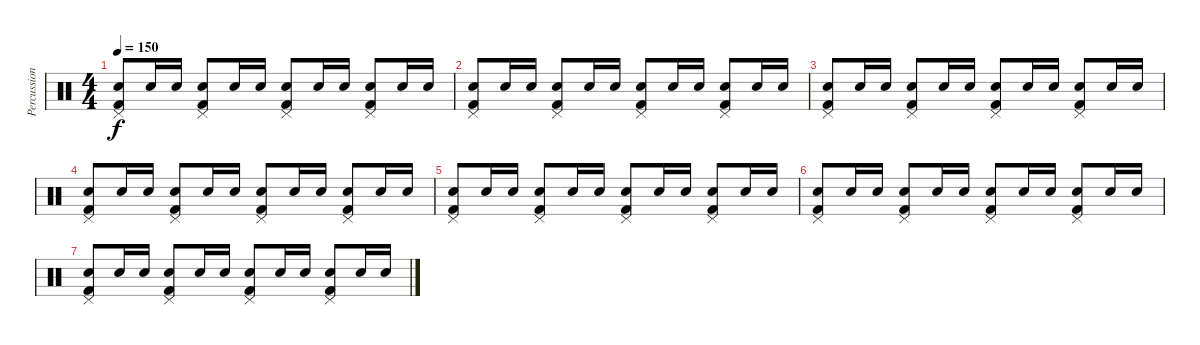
\track ("Percussion" "Percussion") {instrument percussion}
\staff {score}
\articulation defaults
\ts (4 4)
\tempo 150
\clef neutral
\ks c
("Snare (hit) 2" "Pedal Hi-Hat (hit)" "Kick (hit) 2").8{dy f} "Snare (hit) 2".16 "Snare (hit) 2".16 ("Snare (hit) 2" "Pedal Hi-Hat (hit)" "Kick (hit) 2").8 "Snare (hit) 2".16 "Snare (hit) 2".16 ("Snare (hit) 2" "Pedal Hi-Hat (hit)" "Kick (hit) 2").8 "Snare (hit) 2".16 "Snare (hit) 2".16 ("Snare (hit) 2" "Pedal Hi-Hat (hit)" "Kick (hit) 2").8 "Snare (hit) 2".16 "Snare (hit) 2".16 |
("Snare (hit) 2" "Pedal Hi-Hat (hit)" "Kick (hit) 2").8 "Snare (hit) 2".16 "Snare (hit) 2".16 ("Snare (hit) 2" "Pedal Hi-Hat (hit)" "Kick (hit) 2").8 "Snare (hit) 2".16 "Snare (hit) 2".16 ("Snare (hit) 2" "Pedal Hi-Hat (hit)" "Kick (hit) 2").8 "Snare (hit) 2".16 "Snare (hit) 2".16 ("Snare (hit) 2" "Pedal Hi-Hat (hit)" "Kick (hit) 2").8 "Snare (hit) 2".16 "Snare (hit) 2".16 |
("Snare (hit) 2" "Pedal Hi-Hat (hit)" "Kick (hit) 2").8 "Snare (hit) 2".16 "Snare (hit) 2".16 ("Snare (hit) 2" "Pedal Hi-Hat (hit)" "Kick (hit) 2").8 "Snare (hit) 2".16 "Snare (hit) 2".16 ("Snare (hit) 2" "Pedal Hi-Hat (hit)" "Kick (hit) 2").8 "Snare (hit) 2".16 "Snare (hit) 2".16 ("Snare (hit) 2" "Pedal Hi-Hat (hit)" "Kick (hit) 2").8 "Snare (hit) 2".16 "Snare (hit) 2".16 |
("Snare (hit) 2" "Pedal Hi-Hat (hit)" "Kick (hit) 2").8 "Snare (hit) 2".16 "Snare (hit) 2".16 ("Snare (hit) 2" "Pedal Hi-Hat (hit)" "Kick (hit) 2").8 "Snare (hit) 2".16 "Snare (hit) 2".16 ("Snare (hit) 2" "Pedal Hi-Hat (hit)" "Kick (hit) 2").8 "Snare (hit) 2".16 "Snare (hit) 2".16 ("Snare (hit) 2" "Pedal Hi-Hat (hit)" "Kick (hit) 2").8 "Snare (hit) 2".16 "Snare (hit) 2".16 |
("Snare (hit) 2" "Pedal Hi-Hat (hit)" "Kick (hit) 2").8 "Snare (hit) 2".16 "Snare (hit) 2".16 ("Snare (hit) 2" "Pedal Hi-Hat (hit)" "Kick (hit) 2").8 "Snare (hit) 2".16 "Snare (hit) 2".16 ("Snare (hit) 2" "Pedal Hi-Hat (hit)" "Kick (hit) 2").8 "Snare (hit) 2".16 "Snare (hit) 2".16 ("Snare (hit) 2" "Pedal Hi-Hat (hit)" "Kick (hit) 2").8 "Snare (hit) 2".16 "Snare (hit) 2".16 |
("Snare (hit) 2" "Pedal Hi-Hat (hit)" "Kick (hit) 2").8 "Snare (hit) 2".16 "Snare (hit) 2".16 ("Snare (hit) 2" "Pedal Hi-Hat (hit)" "Kick (hit) 2").8 "Snare (hit) 2".16 "Snare (hit) 2".16 ("Snare (hit) 2" "Pedal Hi-Hat (hit)" "Kick (hit) 2").8 "Snare (hit) 2".16 "Snare (hit) 2".16 ("Snare (hit) 2" "Pedal Hi-Hat (hit)" "Kick (hit) 2").8 "Snare (hit) 2".16 "Snare (hit) 2".16 |
("Snare (hit) 2" "Pedal Hi-Hat (hit)" "Kick (hit) 2").8 "Snare (hit) 2".16 "Snare (hit) 2".16 ("Snare (hit) 2" "Pedal Hi-Hat (hit)" "Kick (hit) 2").8 "Snare (hit) 2".16 "Snare (hit) 2".16 ("Snare (hit) 2" "Pedal Hi-Hat (hit)" "Kick (hit) 2").8 "Snare (hit) 2".16 "Snare (hit) 2".16 ("Snare (hit) 2" "Pedal Hi-Hat (hit)" "Kick (hit) 2").8 "Snare (hit) 2".16 "Snare (hit) 2".16
